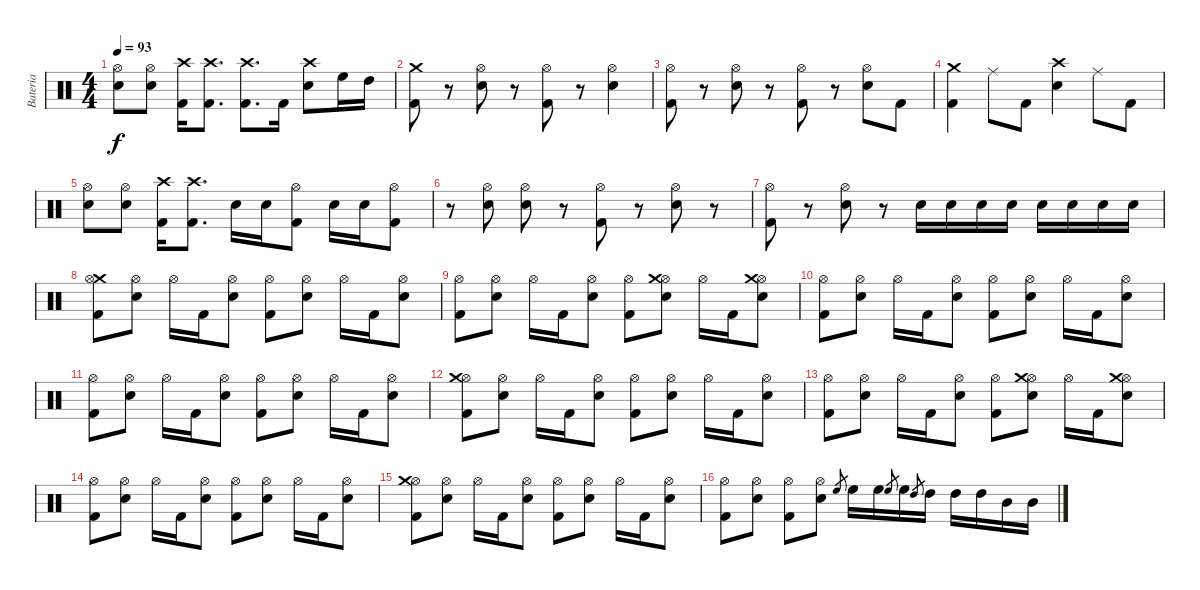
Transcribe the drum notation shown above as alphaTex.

\track ("Bateria" "Bateria") {instrument percussion}
\staff {score}
\articulation defaults
\ts (4 4)
\tempo 93
\clef neutral
\ks c
("Hi-Hat (open)" "Snare (hit) 2").8{dy f} ("Hi-Hat (open)" "Snare (hit) 2").8 ("Kick (hit) 2" "Crash high (hit)").16 ("Kick (hit) 2" "Crash high (hit)").8{d} ("Kick (hit) 2" "Crash high (hit)").8{d} "Kick (hit) 2".16 ("Snare (hit) 2" "Crash high (hit)").8 "High Floor Tom (hit)".16 "High Tom (hit)".16 |
("Crash medium (hit)" "Kick (hit) 2").8 r.8 ("Snare (hit) 2" "Hi-Hat (open)").8 r.8 ("Kick (hit) 2" "Hi-Hat (open)").8 r.8 ("Snare (hit) 2" "Hi-Hat (open)").4 |
("Hi-Hat (open)" "Kick (hit) 2").8 r.8 ("Snare (hit) 2" "Hi-Hat (open)").8 r.8 ("Kick (hit) 2" "Hi-Hat (open)").8 r.8 ("Snare (hit) 2" "Hi-Hat (open)").8 "Kick (hit) 2".8 |
("Kick (hit) 2" "Crash medium (hit)").4 "Ride (middle)".8 "Kick (hit) 2".8 ("Snare (hit) 2" "Crash high (hit)").4 "Ride (middle)".8 "Kick (hit) 2".8 |
("Hi-Hat (open)" "Snare (hit) 2").8 ("Hi-Hat (open)" "Snare (hit) 2").8 ("Kick (hit) 2" "Crash high (hit)").16 ("Kick (hit) 2" "Crash high (hit)").8{d} "Snare (hit) 2".16 "Snare (hit) 2".16 ("Kick (hit) 2" "Hi-Hat (open)").8 "Snare (hit) 2".16 "Snare (hit) 2".16 ("Kick (hit) 2" "Hi-Hat (open)").8 |
r.8 ("Hi-Hat (open)" "Snare (hit) 2").8 ("Snare (hit) 2" "Hi-Hat (open)").8 r.8 ("Kick (hit) 2" "Hi-Hat (open)").8 r.8 ("Snare (hit) 2" "Hi-Hat (open)").8 r.8 |
("Hi-Hat (open)" "Kick (hit) 2").8 r.8 ("Snare (hit) 2" "Hi-Hat (open)").8 r.8 "Snare (hit) 2".16 "Snare (hit) 2".16 "Snare (hit) 2".16 "Snare (hit) 2".16 "Snare (hit) 2".16 "Snare (hit) 2".16 "Snare (hit) 2".16 "Snare (hit) 2".16 |
("Crash medium (hit)" "Kick (hit) 2" "Hi-Hat (open)").8 ("Hi-Hat (open)" "Snare (hit) 2").8 "Hi-Hat (open)".16 "Kick (hit) 2".16 ("Hi-Hat (open)" "Snare (hit) 2").8 ("Kick (hit) 2" "Hi-Hat (open)").8 ("Hi-Hat (open)" "Snare (hit) 2").8 "Hi-Hat (open)".16 "Kick (hit) 2".16 ("Hi-Hat (open)" "Snare (hit) 2").8 |
("Kick (hit) 2" "Hi-Hat (open)").8 ("Hi-Hat (open)" "Snare (hit) 2").8 "Hi-Hat (open)".16 "Kick (hit) 2".16 ("Hi-Hat (open)" "Snare (hit) 2").8 ("Kick (hit) 2" "Hi-Hat (open)").8 ("Hi-Hat (open)" "Snare (hit) 2" "Crash medium (hit)").8 "Hi-Hat (open)".16 "Kick (hit) 2".16 ("Hi-Hat (open)" "Snare (hit) 2" "Crash medium (hit)").8 |
("Kick (hit) 2" "Hi-Hat (open)").8 ("Hi-Hat (open)" "Snare (hit) 2").8 "Hi-Hat (open)".16 "Kick (hit) 2".16 ("Hi-Hat (open)" "Snare (hit) 2").8 ("Kick (hit) 2" "Hi-Hat (open)").8 ("Hi-Hat (open)" "Snare (hit) 2").8 "Hi-Hat (open)".16 "Kick (hit) 2".16 ("Hi-Hat (open)" "Snare (hit) 2").8 |
("Kick (hit) 2" "Hi-Hat (open)").8 ("Hi-Hat (open)" "Snare (hit) 2").8 "Hi-Hat (open)".16 "Kick (hit) 2".16 ("Hi-Hat (open)" "Snare (hit) 2").8 ("Kick (hit) 2" "Hi-Hat (open)").8 ("Hi-Hat (open)" "Snare (hit) 2").8 "Hi-Hat (open)".16 "Kick (hit) 2".16 ("Hi-Hat (open)" "Snare (hit) 2").8 |
("Kick (hit) 2" "Hi-Hat (open)" "Crash medium (hit)").8 ("Hi-Hat (open)" "Snare (hit) 2").8 "Hi-Hat (open)".16 "Kick (hit) 2".16 ("Hi-Hat (open)" "Snare (hit) 2").8 ("Kick (hit) 2" "Hi-Hat (open)").8 ("Hi-Hat (open)" "Snare (hit) 2").8 "Hi-Hat (open)".16 "Kick (hit) 2".16 ("Hi-Hat (open)" "Snare (hit) 2").8 |
("Kick (hit) 2" "Hi-Hat (open)").8 ("Hi-Hat (open)" "Snare (hit) 2").8 "Hi-Hat (open)".16 "Kick (hit) 2".16 ("Hi-Hat (open)" "Snare (hit) 2").8 ("Kick (hit) 2" "Hi-Hat (open)").8 ("Hi-Hat (open)" "Snare (hit) 2" "Crash medium (hit)").8 "Hi-Hat (open)".16 "Kick (hit) 2".16 ("Hi-Hat (open)" "Snare (hit) 2" "Crash medium (hit)").8 |
("Kick (hit) 2" "Hi-Hat (open)").8 ("Hi-Hat (open)" "Snare (hit) 2").8 "Hi-Hat (open)".16 "Kick (hit) 2".16 ("Hi-Hat (open)" "Snare (hit) 2").8 ("Kick (hit) 2" "Hi-Hat (open)").8 ("Hi-Hat (open)" "Snare (hit) 2").8 "Hi-Hat (open)".16 "Kick (hit) 2".16 ("Hi-Hat (open)" "Snare (hit) 2").8 |
("Kick (hit) 2" "Hi-Hat (open)" "Crash medium (hit)").8 ("Hi-Hat (open)" "Snare (hit) 2").8 "Hi-Hat (open)".16 "Kick (hit) 2".16 ("Hi-Hat (open)" "Snare (hit) 2").8 ("Kick (hit) 2" "Hi-Hat (open)").8 ("Hi-Hat (open)" "Snare (hit) 2").8 "Hi-Hat (open)".16 "Kick (hit) 2".16 ("Hi-Hat (open)" "Snare (hit) 2").8 |
("Hi-Hat (open)" "Kick (hit) 2").8 ("Hi-Hat (open)" "Snare (hit) 2").8 ("Kick (hit) 2" "Hi-Hat (open)").8 ("Hi-Hat (open)" "Snare (hit) 2").8 "High Floor Tom (hit)".8{gr} "High Floor Tom (hit)".16 "High Floor Tom (hit)".16 "High Floor Tom (hit)".8{gr} "High Floor Tom (hit)".16 "High Tom (hit)".8{gr} "High Tom (hit)".16 "High Tom (hit)".16 "High Tom (hit)".16 "Mid Tom (hit)".16 "Mid Tom (hit)".16
